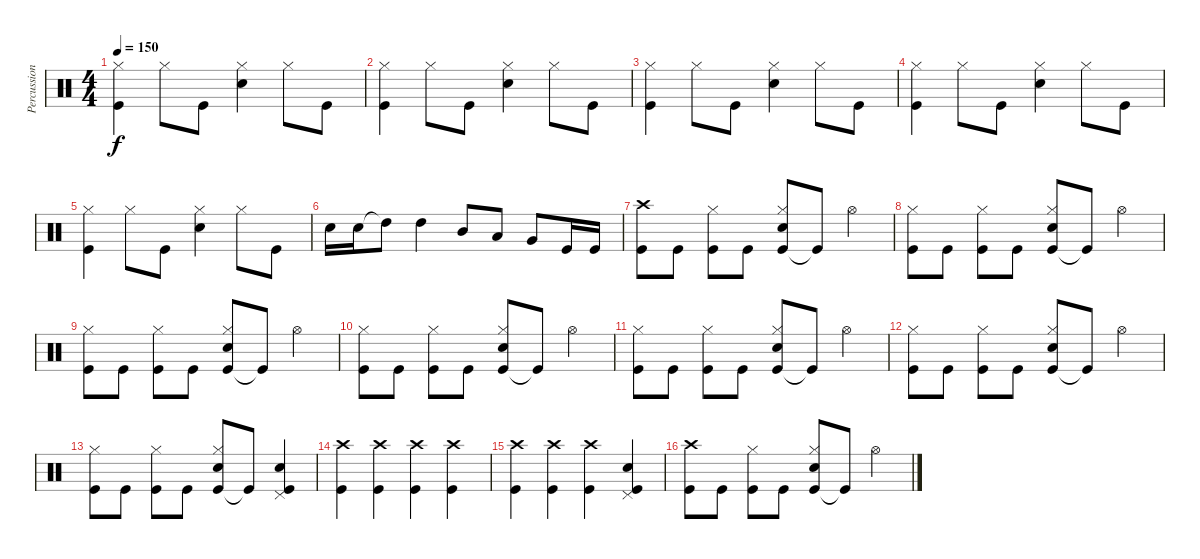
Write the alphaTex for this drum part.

\track ("Percussion" "Percussion") {instrument percussion}
\staff {score}
\articulation defaults
\ts (4 4)
\tempo 150
\clef neutral
\ks c
("Kick (hit)" "Hi-Hat (closed)").4{dy f} "Hi-Hat (closed)".8 "Kick (hit)".8 ("Snare (hit) 2" "Hi-Hat (closed)").4 "Hi-Hat (closed)".8 "Kick (hit)".8 |
("Kick (hit)" "Hi-Hat (closed)").4 "Hi-Hat (closed)".8 "Kick (hit)".8 ("Snare (hit) 2" "Hi-Hat (closed)").4 "Hi-Hat (closed)".8 "Kick (hit)".8 |
("Kick (hit)" "Hi-Hat (closed)").4 "Hi-Hat (closed)".8 "Kick (hit)".8 ("Snare (hit) 2" "Hi-Hat (closed)").4 "Hi-Hat (closed)".8 "Kick (hit)".8 |
("Kick (hit)" "Hi-Hat (closed)").4 "Hi-Hat (closed)".8 "Kick (hit)".8 ("Snare (hit) 2" "Hi-Hat (closed)").4 "Hi-Hat (closed)".8 "Kick (hit)".8 |
("Kick (hit)" "Hi-Hat (closed)").4 "Hi-Hat (closed)".8 "Kick (hit)".8 ("Snare (hit) 2" "Hi-Hat (closed)").4 "Hi-Hat (closed)".8 "Kick (hit)".8 |
"Electric Snare (hit)".16 "Snare (hit) 2".16 "High Tom (hit)"{t}.8 "High Tom (hit)".4 "Mid Tom (hit)".8 "Low Tom (hit)".8 "Very Low Tom (hit)".8 "Kick (hit)".16 "Kick (hit)".16 |
("Kick (hit)" "Crash high (hit)").8 "Kick (hit)".8 ("Kick (hit)" "Hi-Hat (closed)").8 "Kick (hit)".8 ("Kick (hit)" "Hi-Hat (closed)" "Snare (hit) 2").8 "Kick (hit)"{t}.8 "Hi-Hat (open)".4 |
("Kick (hit)" "Hi-Hat (closed)").8 "Kick (hit)".8 ("Kick (hit)" "Hi-Hat (closed)").8 "Kick (hit)".8 ("Kick (hit)" "Hi-Hat (closed)" "Snare (hit) 2").8 "Kick (hit)"{t}.8 "Hi-Hat (open)".4 |
("Kick (hit)" "Hi-Hat (closed)").8 "Kick (hit)".8 ("Kick (hit)" "Hi-Hat (closed)").8 "Kick (hit)".8 ("Kick (hit)" "Hi-Hat (closed)" "Snare (hit) 2").8 "Kick (hit)"{t}.8 "Hi-Hat (open)".4 |
("Kick (hit)" "Hi-Hat (closed)").8 "Kick (hit)".8 ("Kick (hit)" "Hi-Hat (closed)").8 "Kick (hit)".8 ("Kick (hit)" "Hi-Hat (closed)" "Snare (hit) 2").8 "Kick (hit)"{t}.8 "Hi-Hat (open)".4 |
("Kick (hit)" "Hi-Hat (closed)").8 "Kick (hit)".8 ("Kick (hit)" "Hi-Hat (closed)").8 "Kick (hit)".8 ("Kick (hit)" "Hi-Hat (closed)" "Snare (hit) 2").8 "Kick (hit)"{t}.8 "Hi-Hat (open)".4 |
("Kick (hit)" "Hi-Hat (closed)").8 "Kick (hit)".8 ("Kick (hit)" "Hi-Hat (closed)").8 "Kick (hit)".8 ("Kick (hit)" "Hi-Hat (closed)" "Snare (hit) 2").8 "Kick (hit)"{t}.8 "Hi-Hat (open)".4 |
("Kick (hit)" "Hi-Hat (closed)").8 "Kick (hit)".8 ("Kick (hit)" "Hi-Hat (closed)").8 "Kick (hit)".8 ("Kick (hit)" "Hi-Hat (closed)" "Snare (hit) 2").8 "Kick (hit)"{t}.8 ("Kick (hit)" "Pedal Hi-Hat (hit)" "Snare (hit) 2").4 |
("Kick (hit)" "Crash high (hit)").4 ("Kick (hit)" "Crash high (hit)").4 ("Kick (hit)" "Crash high (hit)").4 ("Kick (hit)" "Crash high (hit)").4 |
("Kick (hit)" "Crash high (hit)").4 ("Kick (hit)" "Crash high (hit)").4 ("Kick (hit)" "Crash high (hit)").4 ("Kick (hit)" "Pedal Hi-Hat (hit)" "Snare (hit) 2").4 |
("Kick (hit)" "Crash high (hit)").8 "Kick (hit)".8 ("Kick (hit)" "Hi-Hat (closed)").8 "Kick (hit)".8 ("Kick (hit)" "Hi-Hat (closed)" "Snare (hit) 2").8 "Kick (hit)"{t}.8 "Hi-Hat (open)".4
